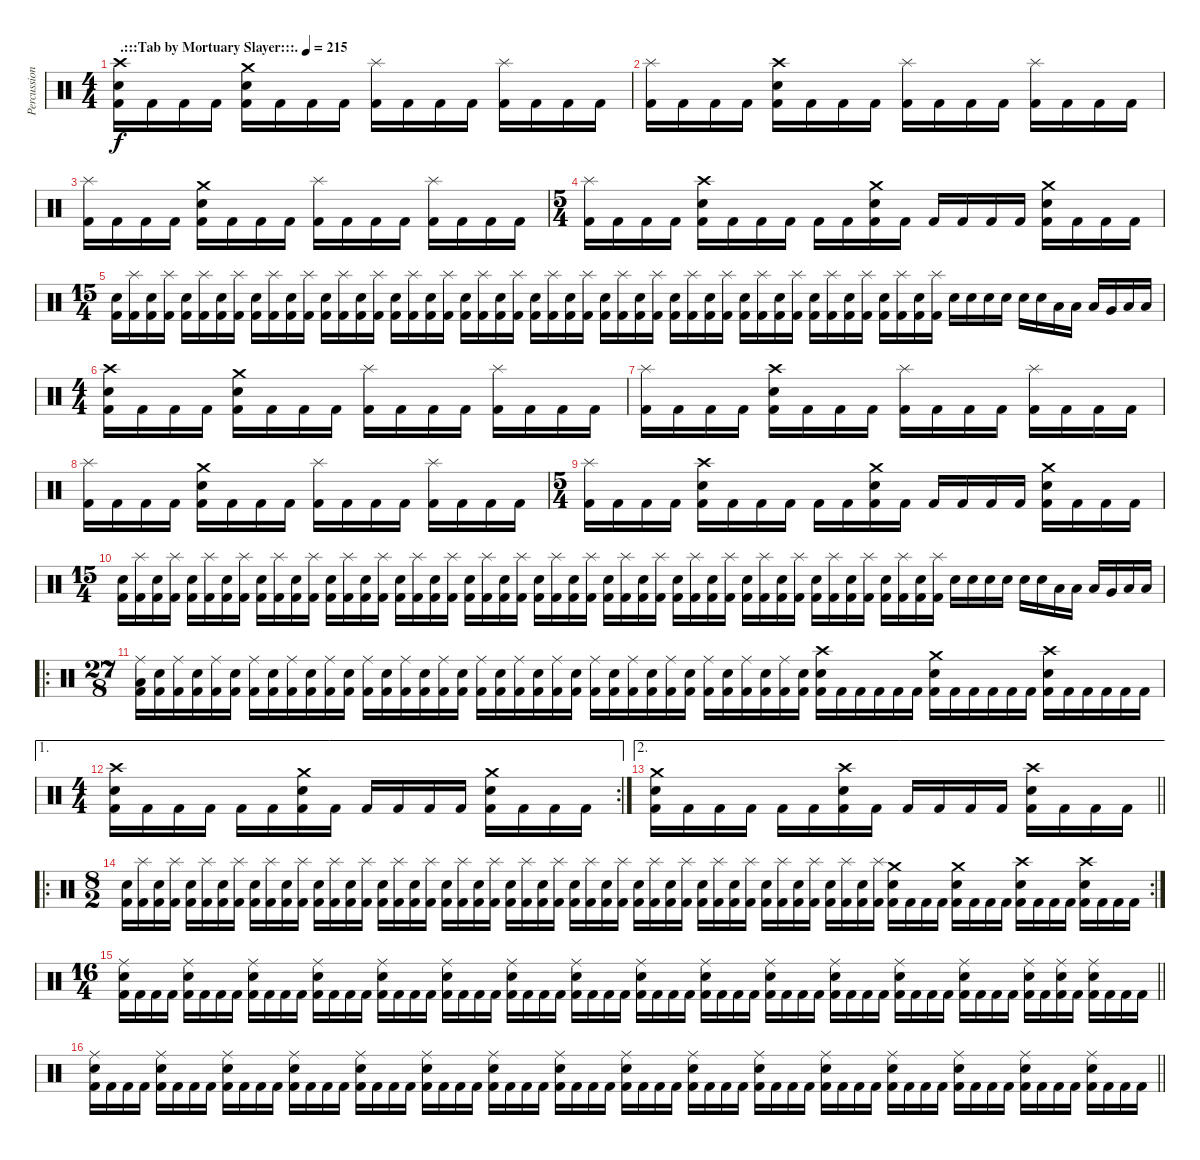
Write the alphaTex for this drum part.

\track ("Percussions" "Percussion") {instrument percussion}
\staff {score}
\articulation defaults
\ts (4 4)
\tempo (215 ".:::Tab by Mortuary Slayer:::.")
\clef neutral
\ks c
("Crash high (hit)" "Electric Snare (hit)" "Kick (hit) 2").16{dy f} "Kick (hit) 2".16 "Kick (hit) 2".16 "Kick (hit) 2".16 ("Crash medium (hit)" "Electric Snare (hit)" "Kick (hit) 2").16 "Kick (hit) 2".16 "Kick (hit) 2".16 "Kick (hit) 2".16 ("Splash (hit)" "Kick (hit) 2").16 "Kick (hit) 2".16 "Kick (hit) 2".16 "Kick (hit) 2".16 ("Splash (hit)" "Kick (hit) 2").16 "Kick (hit) 2".16 "Kick (hit) 2".16 "Kick (hit) 2".16 |
("Splash (hit)" "Kick (hit) 2").16 "Kick (hit) 2".16 "Kick (hit) 2".16 "Kick (hit) 2".16 ("Crash high (hit)" "Electric Snare (hit)" "Kick (hit) 2").16 "Kick (hit) 2".16 "Kick (hit) 2".16 "Kick (hit) 2".16 ("Splash (hit)" "Kick (hit) 2").16 "Kick (hit) 2".16 "Kick (hit) 2".16 "Kick (hit) 2".16 ("Splash (hit)" "Kick (hit) 2").16 "Kick (hit) 2".16 "Kick (hit) 2".16 "Kick (hit) 2".16 |
("Splash (hit)" "Kick (hit) 2").16 "Kick (hit) 2".16 "Kick (hit) 2".16 "Kick (hit) 2".16 ("Crash medium (hit)" "Electric Snare (hit)" "Kick (hit) 2").16 "Kick (hit) 2".16 "Kick (hit) 2".16 "Kick (hit) 2".16 ("Splash (hit)" "Kick (hit) 2").16 "Kick (hit) 2".16 "Kick (hit) 2".16 "Kick (hit) 2".16 ("Splash (hit)" "Kick (hit) 2").16 "Kick (hit) 2".16 "Kick (hit) 2".16 "Kick (hit) 2".16 |
\ts (5 4)
("Splash (hit)" "Kick (hit) 2").16 "Kick (hit) 2".16 "Kick (hit) 2".16 "Kick (hit) 2".16 ("Crash high (hit)" "Electric Snare (hit)" "Kick (hit) 2").16 "Kick (hit) 2".16 "Kick (hit) 2".16 "Kick (hit) 2".16 "Kick (hit) 2".16 "Kick (hit) 2".16 ("Crash medium (hit)" "Electric Snare (hit)" "Kick (hit) 2").16 "Kick (hit) 2".16 "Kick (hit) 2".16 "Kick (hit) 2".16 "Kick (hit) 2".16 "Kick (hit) 2".16 ("Crash medium (hit)" "Electric Snare (hit)" "Kick (hit) 2").16 "Kick (hit) 2".16 "Kick (hit) 2".16 "Kick (hit) 2".16 |
\ts (15 4)
("Electric Snare (hit)" "Kick (hit) 2").16 ("Splash (hit)" "Kick (hit) 2").16 ("Electric Snare (hit)" "Kick (hit) 2").16 ("Splash (hit)" "Kick (hit) 2").16 ("Electric Snare (hit)" "Kick (hit) 2").16 ("Splash (hit)" "Kick (hit) 2").16 ("Electric Snare (hit)" "Kick (hit) 2").16 ("Splash (hit)" "Kick (hit) 2").16 ("Electric Snare (hit)" "Kick (hit) 2").16 ("Splash (hit)" "Kick (hit) 2").16 ("Electric Snare (hit)" "Kick (hit) 2").16 ("Splash (hit)" "Kick (hit) 2").16 ("Electric Snare (hit)" "Kick (hit) 2").16 ("Splash (hit)" "Kick (hit) 2").16 ("Electric Snare (hit)" "Kick (hit) 2").16 ("Splash (hit)" "Kick (hit) 2").16 ("Electric Snare (hit)" "Kick (hit) 2").16 ("Splash (hit)" "Kick (hit) 2").16 ("Electric Snare (hit)" "Kick (hit) 2").16 ("Splash (hit)" "Kick (hit) 2").16 ("Electric Snare (hit)" "Kick (hit) 2").16 ("Splash (hit)" "Kick (hit) 2").16 ("Electric Snare (hit)" "Kick (hit) 2").16 ("Splash (hit)" "Kick (hit) 2").16 ("Electric Snare (hit)" "Kick (hit) 2").16 ("Splash (hit)" "Kick (hit) 2").16 ("Electric Snare (hit)" "Kick (hit) 2").16 ("Splash (hit)" "Kick (hit) 2").16 ("Electric Snare (hit)" "Kick (hit) 2").16 ("Splash (hit)" "Kick (hit) 2").16 ("Electric Snare (hit)" "Kick (hit) 2").16 ("Splash (hit)" "Kick (hit) 2").16 ("Electric Snare (hit)" "Kick (hit) 2").16 ("Splash (hit)" "Kick (hit) 2").16 ("Electric Snare (hit)" "Kick (hit) 2").16 ("Splash (hit)" "Kick (hit) 2").16 ("Electric Snare (hit)" "Kick (hit) 2").16 ("Splash (hit)" "Kick (hit) 2").16 ("Electric Snare (hit)" "Kick (hit) 2").16 ("Splash (hit)" "Kick (hit) 2").16 ("Electric Snare (hit)" "Kick (hit) 2").16 ("Splash (hit)" "Kick (hit) 2").16 ("Electric Snare (hit)" "Kick (hit) 2").16 ("Splash (hit)" "Kick (hit) 2").16 ("Electric Snare (hit)" "Kick (hit) 2").16 ("Splash (hit)" "Kick (hit) 2").16 ("Electric Snare (hit)" "Kick (hit) 2").16 ("Splash (hit)" "Kick (hit) 2").16 "Electric Snare (hit)".16 "Electric Snare (hit)".16 "Electric Snare (hit)".16 "Electric Snare (hit)".16 "Electric Snare (hit)".16 "Electric Snare (hit)".16 "Low Tom (hit)".16 "Low Tom (hit)".16 "Low Tom (hit)".16 "Very Low Tom (hit)".16 "Low Floor Tom (hit)".16 "Low Floor Tom (hit)".16 |
\ts (4 4)
("Crash high (hit)" "Electric Snare (hit)" "Kick (hit) 2").16 "Kick (hit) 2".16 "Kick (hit) 2".16 "Kick (hit) 2".16 ("Crash medium (hit)" "Electric Snare (hit)" "Kick (hit) 2").16 "Kick (hit) 2".16 "Kick (hit) 2".16 "Kick (hit) 2".16 ("Splash (hit)" "Kick (hit) 2").16 "Kick (hit) 2".16 "Kick (hit) 2".16 "Kick (hit) 2".16 ("Splash (hit)" "Kick (hit) 2").16 "Kick (hit) 2".16 "Kick (hit) 2".16 "Kick (hit) 2".16 |
("Splash (hit)" "Kick (hit) 2").16 "Kick (hit) 2".16 "Kick (hit) 2".16 "Kick (hit) 2".16 ("Crash high (hit)" "Electric Snare (hit)" "Kick (hit) 2").16 "Kick (hit) 2".16 "Kick (hit) 2".16 "Kick (hit) 2".16 ("Splash (hit)" "Kick (hit) 2").16 "Kick (hit) 2".16 "Kick (hit) 2".16 "Kick (hit) 2".16 ("Splash (hit)" "Kick (hit) 2").16 "Kick (hit) 2".16 "Kick (hit) 2".16 "Kick (hit) 2".16 |
("Splash (hit)" "Kick (hit) 2").16 "Kick (hit) 2".16 "Kick (hit) 2".16 "Kick (hit) 2".16 ("Crash medium (hit)" "Electric Snare (hit)" "Kick (hit) 2").16 "Kick (hit) 2".16 "Kick (hit) 2".16 "Kick (hit) 2".16 ("Splash (hit)" "Kick (hit) 2").16 "Kick (hit) 2".16 "Kick (hit) 2".16 "Kick (hit) 2".16 ("Splash (hit)" "Kick (hit) 2").16 "Kick (hit) 2".16 "Kick (hit) 2".16 "Kick (hit) 2".16 |
\ts (5 4)
("Splash (hit)" "Kick (hit) 2").16 "Kick (hit) 2".16 "Kick (hit) 2".16 "Kick (hit) 2".16 ("Crash high (hit)" "Electric Snare (hit)" "Kick (hit) 2").16 "Kick (hit) 2".16 "Kick (hit) 2".16 "Kick (hit) 2".16 "Kick (hit) 2".16 "Kick (hit) 2".16 ("Crash medium (hit)" "Electric Snare (hit)" "Kick (hit) 2").16 "Kick (hit) 2".16 "Kick (hit) 2".16 "Kick (hit) 2".16 "Kick (hit) 2".16 "Kick (hit) 2".16 ("Crash medium (hit)" "Electric Snare (hit)" "Kick (hit) 2").16 "Kick (hit) 2".16 "Kick (hit) 2".16 "Kick (hit) 2".16 |
\ts (15 4)
("Electric Snare (hit)" "Kick (hit) 2").16 ("Splash (hit)" "Kick (hit) 2").16 ("Electric Snare (hit)" "Kick (hit) 2").16 ("Splash (hit)" "Kick (hit) 2").16 ("Electric Snare (hit)" "Kick (hit) 2").16 ("Splash (hit)" "Kick (hit) 2").16 ("Electric Snare (hit)" "Kick (hit) 2").16 ("Splash (hit)" "Kick (hit) 2").16 ("Electric Snare (hit)" "Kick (hit) 2").16 ("Splash (hit)" "Kick (hit) 2").16 ("Electric Snare (hit)" "Kick (hit) 2").16 ("Splash (hit)" "Kick (hit) 2").16 ("Electric Snare (hit)" "Kick (hit) 2").16 ("Splash (hit)" "Kick (hit) 2").16 ("Electric Snare (hit)" "Kick (hit) 2").16 ("Splash (hit)" "Kick (hit) 2").16 ("Electric Snare (hit)" "Kick (hit) 2").16 ("Splash (hit)" "Kick (hit) 2").16 ("Electric Snare (hit)" "Kick (hit) 2").16 ("Splash (hit)" "Kick (hit) 2").16 ("Electric Snare (hit)" "Kick (hit) 2").16 ("Splash (hit)" "Kick (hit) 2").16 ("Electric Snare (hit)" "Kick (hit) 2").16 ("Splash (hit)" "Kick (hit) 2").16 ("Electric Snare (hit)" "Kick (hit) 2").16 ("Splash (hit)" "Kick (hit) 2").16 ("Electric Snare (hit)" "Kick (hit) 2").16 ("Splash (hit)" "Kick (hit) 2").16 ("Electric Snare (hit)" "Kick (hit) 2").16 ("Splash (hit)" "Kick (hit) 2").16 ("Electric Snare (hit)" "Kick (hit) 2").16 ("Splash (hit)" "Kick (hit) 2").16 ("Electric Snare (hit)" "Kick (hit) 2").16 ("Splash (hit)" "Kick (hit) 2").16 ("Electric Snare (hit)" "Kick (hit) 2").16 ("Splash (hit)" "Kick (hit) 2").16 ("Electric Snare (hit)" "Kick (hit) 2").16 ("Splash (hit)" "Kick (hit) 2").16 ("Electric Snare (hit)" "Kick (hit) 2").16 ("Splash (hit)" "Kick (hit) 2").16 ("Electric Snare (hit)" "Kick (hit) 2").16 ("Splash (hit)" "Kick (hit) 2").16 ("Electric Snare (hit)" "Kick (hit) 2").16 ("Splash (hit)" "Kick (hit) 2").16 ("Electric Snare (hit)" "Kick (hit) 2").16 ("Splash (hit)" "Kick (hit) 2").16 ("Electric Snare (hit)" "Kick (hit) 2").16 ("Splash (hit)" "Kick (hit) 2").16 "Electric Snare (hit)".16 "Electric Snare (hit)".16 "Electric Snare (hit)".16 "Electric Snare (hit)".16 "Electric Snare (hit)".16 "Electric Snare (hit)".16 "Low Tom (hit)".16 "Low Tom (hit)".16 "Low Tom (hit)".16 "Very Low Tom (hit)".16 "Low Floor Tom (hit)".16 "Low Floor Tom (hit)".16 |
\ro
\ts (27 8)
("Ride (middle)" "Low Floor Tom (hit)" "Kick (hit) 2").16 ("Electric Snare (hit)" "Kick (hit) 2").16 ("Ride (middle)" "Kick (hit) 2").16 ("Electric Snare (hit)" "Kick (hit) 2").16 ("Ride (middle)" "Kick (hit) 2").16 ("Electric Snare (hit)" "Kick (hit) 2").16 ("Ride (middle)" "Kick (hit) 2").16 ("Electric Snare (hit)" "Kick (hit) 2").16 ("Ride (middle)" "Kick (hit) 2").16 ("Electric Snare (hit)" "Kick (hit) 2").16 ("Ride (middle)" "Kick (hit) 2").16 ("Electric Snare (hit)" "Kick (hit) 2").16 ("Ride (middle)" "Kick (hit) 2").16 ("Electric Snare (hit)" "Kick (hit) 2").16 ("Ride (middle)" "Kick (hit) 2").16 ("Electric Snare (hit)" "Kick (hit) 2").16 ("Ride (middle)" "Kick (hit) 2").16 ("Electric Snare (hit)" "Kick (hit) 2").16 ("Ride (middle)" "Kick (hit) 2").16 ("Electric Snare (hit)" "Kick (hit) 2").16 ("Ride (middle)" "Kick (hit) 2").16 ("Electric Snare (hit)" "Kick (hit) 2").16 ("Ride (middle)" "Kick (hit) 2").16 ("Electric Snare (hit)" "Kick (hit) 2").16 ("Ride (middle)" "Kick (hit) 2").16 ("Electric Snare (hit)" "Kick (hit) 2").16 ("Ride (middle)" "Kick (hit) 2").16 ("Electric Snare (hit)" "Kick (hit) 2").16 ("Ride (middle)" "Kick (hit) 2").16 ("Electric Snare (hit)" "Kick (hit) 2").16 ("Ride (middle)" "Kick (hit) 2").16 ("Electric Snare (hit)" "Kick (hit) 2").16 ("Ride (middle)" "Kick (hit) 2").16 ("Electric Snare (hit)" "Kick (hit) 2").16 ("Ride (middle)" "Kick (hit) 2").16 ("Electric Snare (hit)" "Kick (hit) 2").16 ("Crash high (hit)" "Electric Snare (hit)" "Kick (hit) 2").16 "Kick (hit) 2".16 "Kick (hit) 2".16 "Kick (hit) 2".16 "Kick (hit) 2".16 "Kick (hit) 2".16 ("Crash medium (hit)" "Electric Snare (hit)" "Kick (hit) 2").16 "Kick (hit) 2".16 "Kick (hit) 2".16 "Kick (hit) 2".16 "Kick (hit) 2".16 "Kick (hit) 2".16 ("Crash high (hit)" "Electric Snare (hit)" "Kick (hit) 2").16 "Kick (hit) 2".16 "Kick (hit) 2".16 "Kick (hit) 2".16 "Kick (hit) 2".16 "Kick (hit) 2".16 |
\ae 1
\rc 2
\ts (4 4)
("Crash high (hit)" "Electric Snare (hit)" "Kick (hit) 2").16 "Kick (hit) 2".16 "Kick (hit) 2".16 "Kick (hit) 2".16 "Kick (hit) 2".16 "Kick (hit) 2".16 ("Crash medium (hit)" "Electric Snare (hit)" "Kick (hit) 2").16 "Kick (hit) 2".16 "Kick (hit) 2".16 "Kick (hit) 2".16 "Kick (hit) 2".16 "Kick (hit) 2".16 ("Crash medium (hit)" "Electric Snare (hit)" "Kick (hit) 2").16 "Kick (hit) 2".16 "Kick (hit) 2".16 "Kick (hit) 2".16 |
\ae 2
\barLineRight lightlight
("Crash medium (hit)" "Electric Snare (hit)" "Kick (hit) 2").16 "Kick (hit) 2".16 "Kick (hit) 2".16 "Kick (hit) 2".16 "Kick (hit) 2".16 "Kick (hit) 2".16 ("Crash high (hit)" "Electric Snare (hit)" "Kick (hit) 2").16 "Kick (hit) 2".16 "Kick (hit) 2".16 "Kick (hit) 2".16 "Kick (hit) 2".16 "Kick (hit) 2".16 ("Crash high (hit)" "Electric Snare (hit)" "Kick (hit) 2").16 "Kick (hit) 2".16 "Kick (hit) 2".16 "Kick (hit) 2".16 |
\ro
\rc 2
\ts (8 2)
("Electric Snare (hit)" "Kick (hit) 2").16 ("Splash (hit)" "Kick (hit) 2").16 ("Electric Snare (hit)" "Kick (hit) 2").16 ("Splash (hit)" "Kick (hit) 2").16 ("Electric Snare (hit)" "Kick (hit) 2").16 ("Splash (hit)" "Kick (hit) 2").16 ("Electric Snare (hit)" "Kick (hit) 2").16 ("Splash (hit)" "Kick (hit) 2").16 ("Electric Snare (hit)" "Kick (hit) 2").16 ("Splash (hit)" "Kick (hit) 2").16 ("Electric Snare (hit)" "Kick (hit) 2").16 ("Splash (hit)" "Kick (hit) 2").16 ("Electric Snare (hit)" "Kick (hit) 2").16 ("Splash (hit)" "Kick (hit) 2").16 ("Electric Snare (hit)" "Kick (hit) 2").16 ("Splash (hit)" "Kick (hit) 2").16 ("Electric Snare (hit)" "Kick (hit) 2").16 ("Splash (hit)" "Kick (hit) 2").16 ("Electric Snare (hit)" "Kick (hit) 2").16 ("Splash (hit)" "Kick (hit) 2").16 ("Electric Snare (hit)" "Kick (hit) 2").16 ("Splash (hit)" "Kick (hit) 2").16 ("Electric Snare (hit)" "Kick (hit) 2").16 ("Splash (hit)" "Kick (hit) 2").16 ("Electric Snare (hit)" "Kick (hit) 2").16 ("Splash (hit)" "Kick (hit) 2").16 ("Electric Snare (hit)" "Kick (hit) 2").16 ("Splash (hit)" "Kick (hit) 2").16 ("Electric Snare (hit)" "Kick (hit) 2").16 ("Splash (hit)" "Kick (hit) 2").16 ("Electric Snare (hit)" "Kick (hit) 2").16 ("Splash (hit)" "Kick (hit) 2").16 ("Electric Snare (hit)" "Kick (hit) 2").16 ("Splash (hit)" "Kick (hit) 2").16 ("Electric Snare (hit)" "Kick (hit) 2").16 ("Splash (hit)" "Kick (hit) 2").16 ("Electric Snare (hit)" "Kick (hit) 2").16 ("Splash (hit)" "Kick (hit) 2").16 ("Electric Snare (hit)" "Kick (hit) 2").16 ("Splash (hit)" "Kick (hit) 2").16 ("Electric Snare (hit)" "Kick (hit) 2").16 ("Splash (hit)" "Kick (hit) 2").16 ("Electric Snare (hit)" "Kick (hit) 2").16 ("Splash (hit)" "Kick (hit) 2").16 ("Electric Snare (hit)" "Kick (hit) 2").16 ("Splash (hit)" "Kick (hit) 2").16 ("Electric Snare (hit)" "Kick (hit) 2").16 ("Splash (hit)" "Kick (hit) 2").16 ("Crash medium (hit)" "Electric Snare (hit)" "Kick (hit) 2").16 "Kick (hit) 2".16 "Kick (hit) 2".16 "Kick (hit) 2".16 ("Crash medium (hit)" "Electric Snare (hit)" "Kick (hit) 2").16 "Kick (hit) 2".16 "Kick (hit) 2".16 "Kick (hit) 2".16 ("Crash high (hit)" "Electric Snare (hit)" "Kick (hit) 2").16 "Kick (hit) 2".16 "Kick (hit) 2".16 "Kick (hit) 2".16 ("Crash high (hit)" "Electric Snare (hit)" "Kick (hit) 2").16 "Kick (hit) 2".16 "Kick (hit) 2".16 "Kick (hit) 2".16 |
\ts (16 4)
\barLineRight lightlight
("Ride (middle)" "Electric Snare (hit)" "Kick (hit) 2").16 "Kick (hit) 2".16 "Kick (hit) 2".16 "Kick (hit) 2".16 ("Ride (middle)" "Electric Snare (hit)" "Kick (hit) 2").16 "Kick (hit) 2".16 "Kick (hit) 2".16 "Kick (hit) 2".16 ("Ride (middle)" "Electric Snare (hit)" "Kick (hit) 2").16 "Kick (hit) 2".16 "Kick (hit) 2".16 "Kick (hit) 2".16 ("Ride (middle)" "Electric Snare (hit)" "Kick (hit) 2").16 "Kick (hit) 2".16 "Kick (hit) 2".16 "Kick (hit) 2".16 ("Ride (middle)" "Electric Snare (hit)" "Kick (hit) 2").16 "Kick (hit) 2".16 "Kick (hit) 2".16 "Kick (hit) 2".16 ("Ride (middle)" "Electric Snare (hit)" "Kick (hit) 2").16 "Kick (hit) 2".16 "Kick (hit) 2".16 "Kick (hit) 2".16 ("Ride (middle)" "Electric Snare (hit)" "Kick (hit) 2").16 "Kick (hit) 2".16 "Kick (hit) 2".16 "Kick (hit) 2".16 ("Ride (middle)" "Electric Snare (hit)" "Kick (hit) 2").16 "Kick (hit) 2".16 "Kick (hit) 2".16 "Kick (hit) 2".16 ("Ride (middle)" "Electric Snare (hit)" "Kick (hit) 2").16 "Kick (hit) 2".16 "Kick (hit) 2".16 "Kick (hit) 2".16 ("Ride (middle)" "Electric Snare (hit)" "Kick (hit) 2").16 "Kick (hit) 2".16 "Kick (hit) 2".16 "Kick (hit) 2".16 ("Ride (middle)" "Electric Snare (hit)" "Kick (hit) 2").16 "Kick (hit) 2".16 "Kick (hit) 2".16 "Kick (hit) 2".16 ("Ride (middle)" "Electric Snare (hit)" "Kick (hit) 2").16 "Kick (hit) 2".16 "Kick (hit) 2".16 "Kick (hit) 2".16 ("Ride (middle)" "Electric Snare (hit)" "Kick (hit) 2").16 "Kick (hit) 2".16 "Kick (hit) 2".16 "Kick (hit) 2".16 ("Ride (middle)" "Electric Snare (hit)" "Kick (hit) 2").16 "Kick (hit) 2".16 "Kick (hit) 2".16 "Kick (hit) 2".16 ("Ride (middle)" "Electric Snare (hit)" "Kick (hit) 2").16 "Kick (hit) 2".16 ("Ride (middle)" "Electric Snare (hit)" "Kick (hit) 2").16 "Kick (hit) 2".16 ("Ride (middle)" "Electric Snare (hit)" "Kick (hit) 2").16 "Kick (hit) 2".16 "Kick (hit) 2".16 "Kick (hit) 2".16 |
\barLineRight lightlight
("Ride (middle)" "Electric Snare (hit)" "Kick (hit) 2").16 "Kick (hit) 2".16 "Kick (hit) 2".16 "Kick (hit) 2".16 ("Ride (middle)" "Electric Snare (hit)" "Kick (hit) 2").16 "Kick (hit) 2".16 "Kick (hit) 2".16 "Kick (hit) 2".16 ("Ride (middle)" "Electric Snare (hit)" "Kick (hit) 2").16 "Kick (hit) 2".16 "Kick (hit) 2".16 "Kick (hit) 2".16 ("Ride (middle)" "Electric Snare (hit)" "Kick (hit) 2").16 "Kick (hit) 2".16 "Kick (hit) 2".16 "Kick (hit) 2".16 ("Ride (middle)" "Electric Snare (hit)" "Kick (hit) 2").16 "Kick (hit) 2".16 "Kick (hit) 2".16 "Kick (hit) 2".16 ("Ride (middle)" "Electric Snare (hit)" "Kick (hit) 2").16 "Kick (hit) 2".16 "Kick (hit) 2".16 "Kick (hit) 2".16 ("Ride (middle)" "Electric Snare (hit)" "Kick (hit) 2").16 "Kick (hit) 2".16 "Kick (hit) 2".16 "Kick (hit) 2".16 ("Ride (middle)" "Electric Snare (hit)" "Kick (hit) 2").16 "Kick (hit) 2".16 "Kick (hit) 2".16 "Kick (hit) 2".16 ("Ride (middle)" "Electric Snare (hit)" "Kick (hit) 2").16 "Kick (hit) 2".16 "Kick (hit) 2".16 "Kick (hit) 2".16 ("Ride (middle)" "Electric Snare (hit)" "Kick (hit) 2").16 "Kick (hit) 2".16 "Kick (hit) 2".16 "Kick (hit) 2".16 ("Ride (middle)" "Electric Snare (hit)" "Kick (hit) 2").16 "Kick (hit) 2".16 "Kick (hit) 2".16 "Kick (hit) 2".16 ("Ride (middle)" "Electric Snare (hit)" "Kick (hit) 2").16 "Kick (hit) 2".16 "Kick (hit) 2".16 "Kick (hit) 2".16 ("Ride (middle)" "Electric Snare (hit)" "Kick (hit) 2").16 "Kick (hit) 2".16 "Kick (hit) 2".16 "Kick (hit) 2".16 ("Ride (middle)" "Electric Snare (hit)" "Kick (hit) 2").16 "Kick (hit) 2".16 "Kick (hit) 2".16 "Kick (hit) 2".16 ("Ride (middle)" "Electric Snare (hit)" "Kick (hit) 2").16 "Kick (hit) 2".16 "Kick (hit) 2".16 "Kick (hit) 2".16 ("Ride (middle)" "Electric Snare (hit)" "Kick (hit) 2").16 "Kick (hit) 2".16 "Kick (hit) 2".16 "Kick (hit) 2".16
